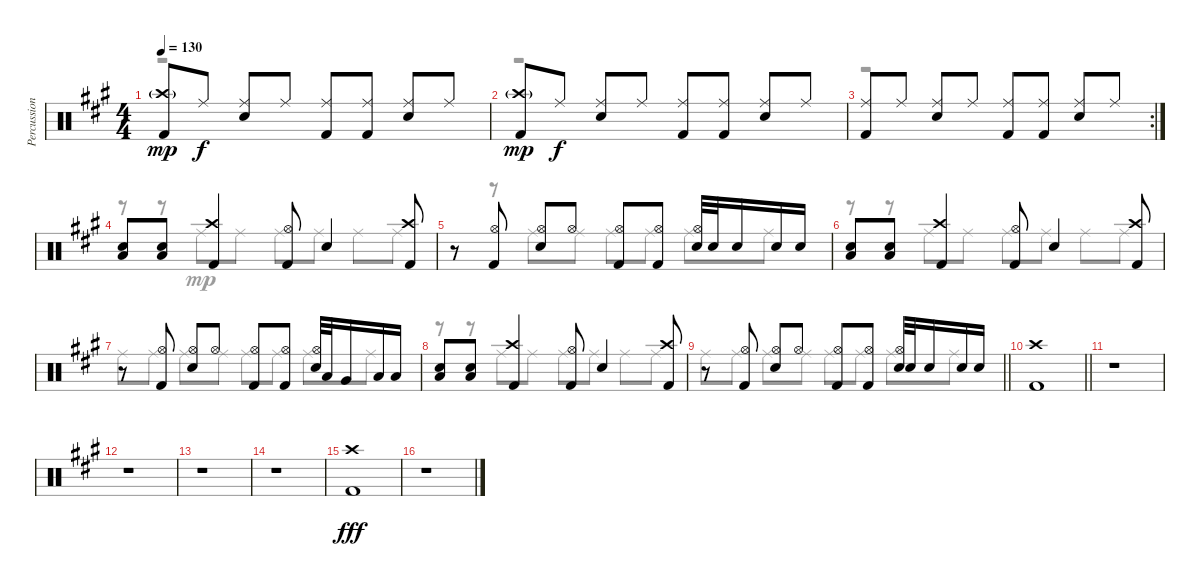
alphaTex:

\track ("Percussion" "Percussion") {instrument percussion}
\staff {score}
\articulation defaults
\voice
\ts (4 4)
\tempo 130
\clef neutral
\ks a
("Crash high (hit)"{g} "Kick (hit) 2").8{dy mp} "Ride (middle)".8{dy f} ("Ride (middle)" "Electric Snare (hit)").8 "Ride (middle)".8 ("Ride (middle)" "Kick (hit) 2").8 ("Ride (middle)" "Kick (hit) 2").8 ("Ride (middle)" "Electric Snare (hit)").8 "Ride (middle)".8 |
("Crash high (hit)"{g} "Kick (hit) 2").8{dy mp} "Ride (middle)".8{dy f} ("Ride (middle)" "Electric Snare (hit)").8 "Ride (middle)".8 ("Ride (middle)" "Kick (hit) 2").8 ("Ride (middle)" "Kick (hit) 2").8 ("Ride (middle)" "Electric Snare (hit)").8 "Ride (middle)".8 |
\rc 2
("Ride (middle)" "Kick (hit) 2").8 "Ride (middle)".8 ("Ride (middle)" "Electric Snare (hit)").8 "Ride (middle)".8 ("Ride (middle)" "Kick (hit) 2").8 ("Ride (middle)" "Kick (hit) 2").8 ("Ride (middle)" "Electric Snare (hit)").8 "Ride (middle)".8 |
("Electric Snare (hit)" "Low Floor Tom (hit)").8 ("Electric Snare (hit)" "Low Floor Tom (hit)").8 ("Crash high (hit)" "Kick (hit) 2").4 ("Hi-Hat (open)" "Kick (hit) 2").8 "Electric Snare (hit)".4 ("Crash high (hit)" "Kick (hit) 2").8 |
r.8 ("Hi-Hat (open)" "Kick (hit) 2").8 ("Hi-Hat (open)" "Electric Snare (hit)").8 "Hi-Hat (open)".8 ("Hi-Hat (open)" "Kick (hit) 2").8 ("Hi-Hat (open)" "Kick (hit) 2").8 ("Hi-Hat (open)" "Electric Snare (hit)").32 "Electric Snare (hit)".32 "Electric Snare (hit)".16 "Electric Snare (hit)".16 "Electric Snare (hit)".16 |
("Electric Snare (hit)" "Low Floor Tom (hit)").8 ("Electric Snare (hit)" "Low Floor Tom (hit)").8 ("Crash high (hit)" "Kick (hit) 2").4 ("Hi-Hat (open)" "Kick (hit) 2").8 "Electric Snare (hit)".4 ("Crash high (hit)" "Kick (hit) 2").8 |
r.8 ("Hi-Hat (open)" "Kick (hit) 2").8 ("Hi-Hat (open)" "Electric Snare (hit)").8 "Hi-Hat (open)".8 ("Hi-Hat (open)" "Kick (hit) 2").8 ("Hi-Hat (open)" "Kick (hit) 2").8 ("Hi-Hat (open)" "Electric Snare (hit)").32 "Low Tom (hit)".32 "Very Low Tom (hit)".16 "Low Floor Tom (hit)".16 "Low Floor Tom (hit)".16 |
("Electric Snare (hit)" "Low Floor Tom (hit)").8 ("Electric Snare (hit)" "Low Floor Tom (hit)").8 ("Crash high (hit)" "Kick (hit) 2").4 ("Hi-Hat (open)" "Kick (hit) 2").8 "Electric Snare (hit)".4 ("Crash high (hit)" "Kick (hit) 2").8 |
\barLineRight lightlight
r.8 ("Hi-Hat (open)" "Kick (hit) 2").8 ("Hi-Hat (open)" "Electric Snare (hit)").8 "Hi-Hat (open)".8 ("Hi-Hat (open)" "Kick (hit) 2").8 ("Hi-Hat (open)" "Kick (hit) 2").8 ("Hi-Hat (open)" "Electric Snare (hit)").32 "Electric Snare (hit)".32 "Electric Snare (hit)".16 "Electric Snare (hit)".16 "Electric Snare (hit)".16 |
\barLineRight lightlight
("Crash high (hit)" "Kick (hit) 2").1 |
r.1 |
r.1 |
r.1 |
r.1 |
("Crash high (hit)" "Kick (hit) 2").1{dy fff} |
r.1
\voice
\clef neutral
\ottava regular
\simile none
\ks a
r.1{dy f} |
r.1 |
r.1 |
r.8 r.8 "Ride (middle)".8{dy mp} "Ride (middle)".8 "Ride (middle)".8 "Ride (middle)".8 "Ride (middle)".8 "Ride (middle)".8 |
r.8 r.8 "Ride (middle)".8 "Ride (middle)".8 "Ride (middle)".8 "Ride (middle)".8 "Ride (middle)".8 "Ride (middle)".8 |
r.8 r.8 "Ride (middle)".8 "Ride (middle)".8 "Ride (middle)".8 "Ride (middle)".8 "Ride (middle)".8 "Ride (middle)".8 |
"Ride (middle)".8 "Ride (middle)".8 "Ride (middle)".8 "Ride (middle)".8 "Ride (middle)".8 "Ride (middle)".8 "Ride (middle)".8 "Ride (middle)".8 |
r.8 r.8 "Ride (middle)".8 "Ride (middle)".8 "Ride (middle)".8 "Ride (middle)".8 "Ride (middle)".8 "Ride (middle)".8 |
\barLineRight lightlight "Ride (middle)".8 "Ride (middle)".8 "Ride (middle)".8 "Ride (middle)".8 "Ride (middle)".8 "Ride (middle)".8 "Ride (middle)".8 "Ride (middle)".8
|
\barLineRight lightlight
|
|
|
|
|
|
